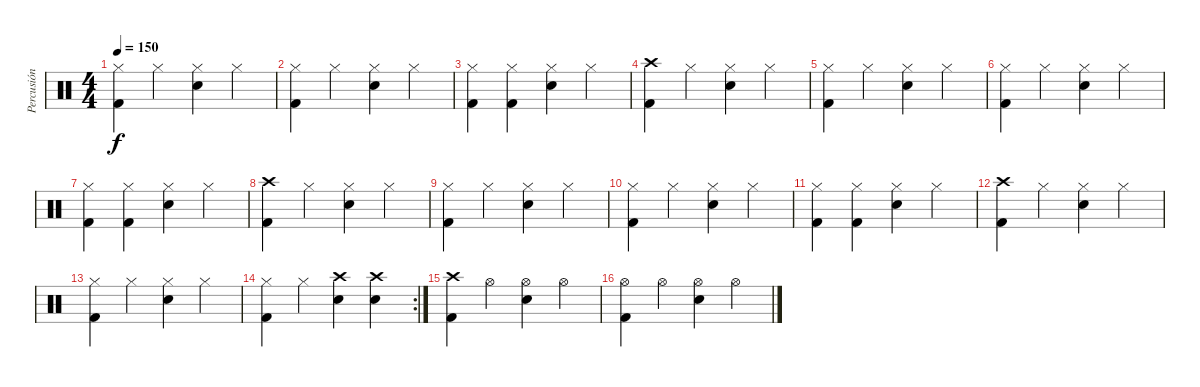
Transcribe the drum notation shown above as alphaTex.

\track ("Percusión" "Percusión") {instrument percussion}
\staff {score}
\articulation defaults
\ts (4 4)
\tempo 150
\clef neutral
\ks c
("Kick (hit) 2" "Hi-Hat (closed)").4{dy f} "Hi-Hat (closed)".4 ("Snare (hit) 2" "Hi-Hat (closed)").4 "Hi-Hat (closed)".4 |
("Kick (hit) 2" "Hi-Hat (closed)").4 "Hi-Hat (closed)".4 ("Snare (hit) 2" "Hi-Hat (closed)").4 "Hi-Hat (closed)".4 |
("Kick (hit) 2" "Hi-Hat (closed)").4 ("Kick (hit) 2" "Hi-Hat (closed)").4 ("Snare (hit) 2" "Hi-Hat (closed)").4 "Hi-Hat (closed)".4 |
("Kick (hit) 2" "Crash high (hit)").4 "Hi-Hat (closed)".4 ("Snare (hit) 2" "Hi-Hat (closed)").4 "Hi-Hat (closed)".4 |
("Kick (hit) 2" "Hi-Hat (closed)").4 "Hi-Hat (closed)".4 ("Snare (hit) 2" "Hi-Hat (closed)").4 "Hi-Hat (closed)".4 |
("Kick (hit) 2" "Hi-Hat (closed)").4 "Hi-Hat (closed)".4 ("Snare (hit) 2" "Hi-Hat (closed)").4 "Hi-Hat (closed)".4 |
("Kick (hit) 2" "Hi-Hat (closed)").4 ("Kick (hit) 2" "Hi-Hat (closed)").4 ("Snare (hit) 2" "Hi-Hat (closed)").4 "Hi-Hat (closed)".4 |
("Kick (hit) 2" "Crash high (hit)").4 "Hi-Hat (closed)".4 ("Snare (hit) 2" "Hi-Hat (closed)").4 "Hi-Hat (closed)".4 |
("Kick (hit) 2" "Hi-Hat (closed)").4 "Hi-Hat (closed)".4 ("Snare (hit) 2" "Hi-Hat (closed)").4 "Hi-Hat (closed)".4 |
("Kick (hit) 2" "Hi-Hat (closed)").4 "Hi-Hat (closed)".4 ("Snare (hit) 2" "Hi-Hat (closed)").4 "Hi-Hat (closed)".4 |
("Kick (hit) 2" "Hi-Hat (closed)").4 ("Kick (hit) 2" "Hi-Hat (closed)").4 ("Snare (hit) 2" "Hi-Hat (closed)").4 "Hi-Hat (closed)".4 |
("Kick (hit) 2" "Crash high (hit)").4 "Hi-Hat (closed)".4 ("Snare (hit) 2" "Hi-Hat (closed)").4 "Hi-Hat (closed)".4 |
("Kick (hit) 2" "Hi-Hat (closed)").4 "Hi-Hat (closed)".4 ("Snare (hit) 2" "Hi-Hat (closed)").4 "Hi-Hat (closed)".4 |
\rc 2
("Kick (hit) 2" "Hi-Hat (closed)").4 "Hi-Hat (closed)".4 ("Snare (hit) 2" "Crash high (hit)").4 ("Snare (hit) 2" "Crash high (hit)").4 |
("Kick (hit) 2" "Crash high (hit)").4 "Hi-Hat (open)".4 ("Snare (hit) 2" "Hi-Hat (open)").4 "Hi-Hat (open)".4 |
("Kick (hit) 2" "Hi-Hat (open)").4 "Hi-Hat (open)".4 ("Snare (hit) 2" "Hi-Hat (open)").4 "Hi-Hat (open)".4
